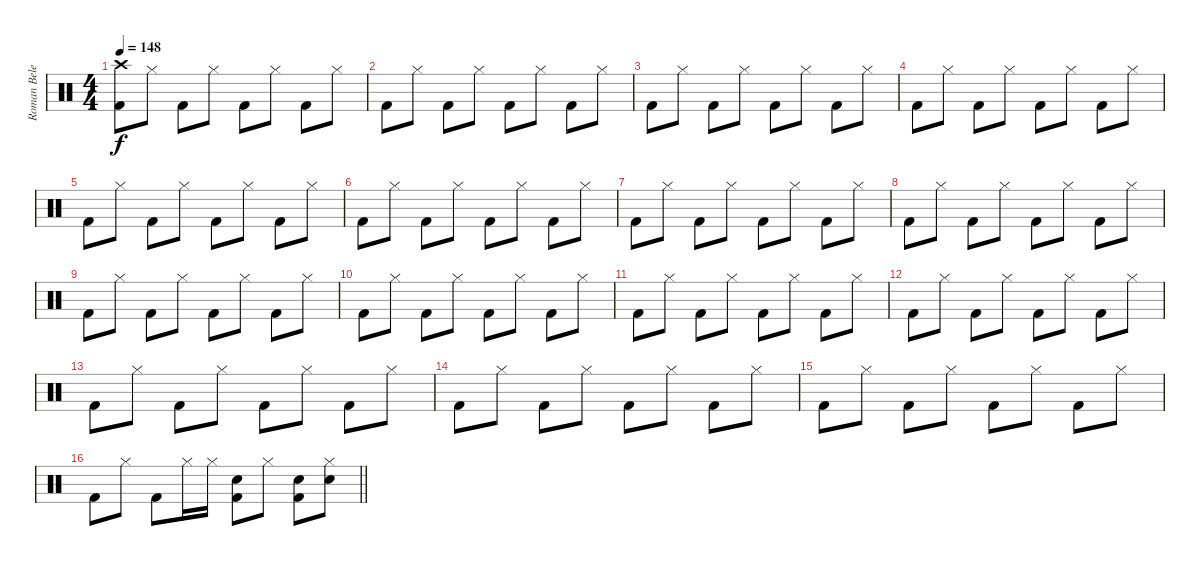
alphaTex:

\track ("Roman Belenkiy" "Roman Bele") {instrument percussion}
\staff {score}
\articulation defaults
\ts (4 4)
\section ("" "")
\tempo 148
\clef neutral
\ks c
("Crash high (hit)" "Kick (hit) 2").8{dy f} "Hi-Hat (closed)".8 "Kick (hit) 2".8 "Hi-Hat (closed)".8 "Kick (hit) 2".8 "Hi-Hat (closed)".8 "Kick (hit) 2".8 "Hi-Hat (closed)".8 |
"Kick (hit) 2".8 "Hi-Hat (closed)".8 "Kick (hit) 2".8 "Hi-Hat (closed)".8 "Kick (hit) 2".8 "Hi-Hat (closed)".8 "Kick (hit) 2".8 "Hi-Hat (closed)".8 |
"Kick (hit) 2".8 "Hi-Hat (closed)".8 "Kick (hit) 2".8 "Hi-Hat (closed)".8 "Kick (hit) 2".8 "Hi-Hat (closed)".8 "Kick (hit) 2".8 "Hi-Hat (closed)".8 |
"Kick (hit) 2".8 "Hi-Hat (closed)".8 "Kick (hit) 2".8 "Hi-Hat (closed)".8 "Kick (hit) 2".8 "Hi-Hat (closed)".8 "Kick (hit) 2".8 "Hi-Hat (closed)".8 |
"Kick (hit) 2".8 "Hi-Hat (closed)".8 "Kick (hit) 2".8 "Hi-Hat (closed)".8 "Kick (hit) 2".8 "Hi-Hat (closed)".8 "Kick (hit) 2".8 "Hi-Hat (closed)".8 |
"Kick (hit) 2".8 "Hi-Hat (closed)".8 "Kick (hit) 2".8 "Hi-Hat (closed)".8 "Kick (hit) 2".8 "Hi-Hat (closed)".8 "Kick (hit) 2".8 "Hi-Hat (closed)".8 |
"Kick (hit) 2".8 "Hi-Hat (closed)".8 "Kick (hit) 2".8 "Hi-Hat (closed)".8 "Kick (hit) 2".8 "Hi-Hat (closed)".8 "Kick (hit) 2".8 "Hi-Hat (closed)".8 |
"Kick (hit) 2".8 "Hi-Hat (closed)".8 "Kick (hit) 2".8 "Hi-Hat (closed)".8 "Kick (hit) 2".8 "Hi-Hat (closed)".8 "Kick (hit) 2".8 "Hi-Hat (closed)".8 |
"Kick (hit) 2".8 "Hi-Hat (closed)".8 "Kick (hit) 2".8 "Hi-Hat (closed)".8 "Kick (hit) 2".8 "Hi-Hat (closed)".8 "Kick (hit) 2".8 "Hi-Hat (closed)".8 |
"Kick (hit) 2".8 "Hi-Hat (closed)".8 "Kick (hit) 2".8 "Hi-Hat (closed)".8 "Kick (hit) 2".8 "Hi-Hat (closed)".8 "Kick (hit) 2".8 "Hi-Hat (closed)".8 |
"Kick (hit) 2".8 "Hi-Hat (closed)".8 "Kick (hit) 2".8 "Hi-Hat (closed)".8 "Kick (hit) 2".8 "Hi-Hat (closed)".8 "Kick (hit) 2".8 "Hi-Hat (closed)".8 |
"Kick (hit) 2".8 "Hi-Hat (closed)".8 "Kick (hit) 2".8 "Hi-Hat (closed)".8 "Kick (hit) 2".8 "Hi-Hat (closed)".8 "Kick (hit) 2".8 "Hi-Hat (closed)".8 |
"Kick (hit) 2".8 "Hi-Hat (closed)".8 "Kick (hit) 2".8 "Hi-Hat (closed)".8 "Kick (hit) 2".8 "Hi-Hat (closed)".8 "Kick (hit) 2".8 "Hi-Hat (closed)".8 |
"Kick (hit) 2".8 "Hi-Hat (closed)".8 "Kick (hit) 2".8 "Hi-Hat (closed)".8 "Kick (hit) 2".8 "Hi-Hat (closed)".8 "Kick (hit) 2".8 "Hi-Hat (closed)".8 |
"Kick (hit) 2".8 "Hi-Hat (closed)".8 "Kick (hit) 2".8 "Hi-Hat (closed)".8 "Kick (hit) 2".8 "Hi-Hat (closed)".8 "Kick (hit) 2".8 "Hi-Hat (closed)".8 |
\barLineRight lightlight "Kick (hit) 2".8 "Hi-Hat (closed)".8 "Kick (hit) 2".8 "Hi-Hat (closed)".16 "Hi-Hat (closed)".16
("Snare (hit) 2" "Kick (hit) 2").8 "Hi-Hat (closed)".8 ("Snare (hit) 2" "Kick (hit) 2").8 ("Hi-Hat (closed)" "Snare (hit) 2").8
